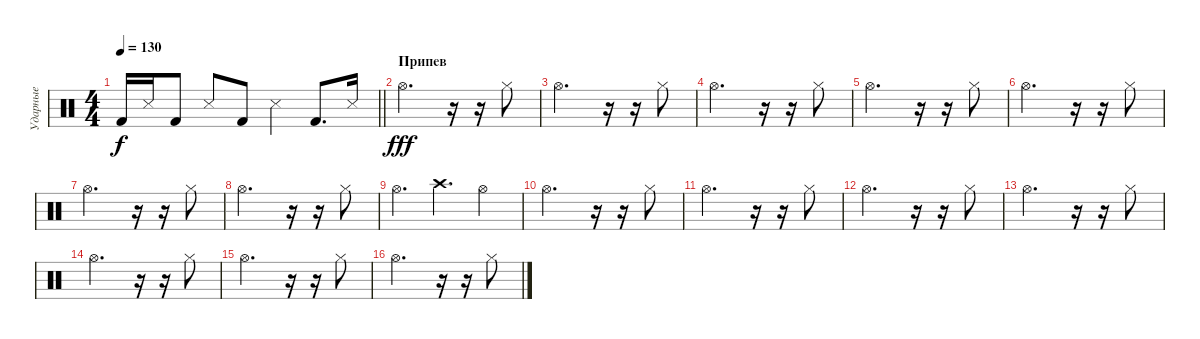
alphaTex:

\track ("Ударные" "Ударные") {instrument percussion}
\staff {score}
\articulation defaults
\ts (4 4)
\tempo 130
\clef neutral
\barLineRight lightlight
\ks c "Kick (hit) 2".16{dy f} "Snare (side stick) 3".16 "Kick (hit) 2".8 "Snare (side stick) 3".8 "Kick (hit) 2".8 "Snare (side stick) 3".4 "Kick (hit) 2".8{d} "Snare (side stick) 3".16
|
\section ("" "Припев")
"Hi-Hat (open)".2{d dy fff} r.16 r.16 "Hi-Hat (closed)".8 |
"Hi-Hat (open)".2{d} r.16 r.16 "Hi-Hat (closed)".8 |
"Hi-Hat (open)".2{d} r.16 r.16 "Hi-Hat (closed)".8 |
"Hi-Hat (open)".2{d} r.16 r.16 "Hi-Hat (closed)".8 |
"Hi-Hat (open)".2{d} r.16 r.16 "Hi-Hat (closed)".8 |
"Hi-Hat (open)".2{d} r.16 r.16 "Hi-Hat (closed)".8 |
"Hi-Hat (open)".2{d} r.16 r.16 "Hi-Hat (closed)".8 |
"Hi-Hat (open)".4{d} "Crash high (hit)".4{d} "Hi-Hat (open)".4 |
"Hi-Hat (open)".2{d} r.16 r.16 "Hi-Hat (closed)".8 |
"Hi-Hat (open)".2{d} r.16 r.16 "Hi-Hat (closed)".8 |
"Hi-Hat (open)".2{d} r.16 r.16 "Hi-Hat (closed)".8 |
"Hi-Hat (open)".2{d} r.16 r.16 "Hi-Hat (closed)".8 |
"Hi-Hat (open)".2{d} r.16 r.16 "Hi-Hat (closed)".8 |
"Hi-Hat (open)".2{d} r.16 r.16 "Hi-Hat (closed)".8 |
"Hi-Hat (open)".2{d} r.16 r.16 "Hi-Hat (closed)".8
